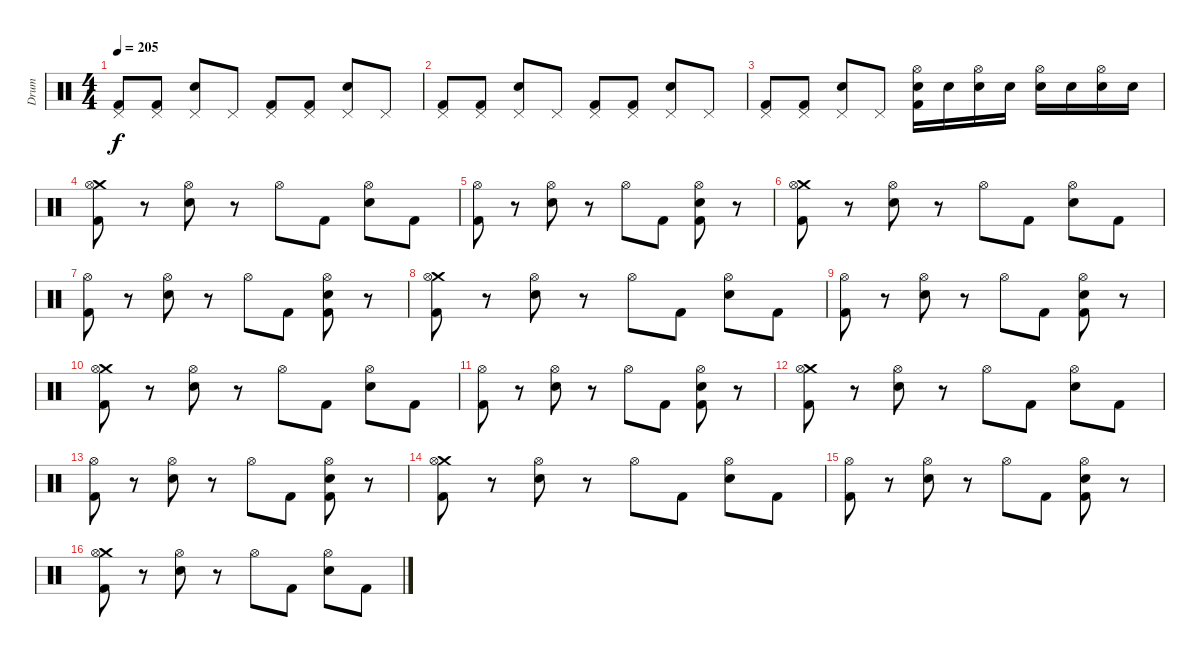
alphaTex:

\track ("Drum" "Drum") {instrument percussion}
\staff {score}
\articulation defaults
\ts (4 4)
\tempo 205
\clef neutral
\ks c
("Pedal Hi-Hat (hit)" "Kick (hit) 2").8{dy f} ("Pedal Hi-Hat (hit)" "Kick (hit) 2").8 ("Pedal Hi-Hat (hit)" "Snare (hit) 2").8 "Pedal Hi-Hat (hit)".8 ("Pedal Hi-Hat (hit)" "Kick (hit) 2").8 ("Pedal Hi-Hat (hit)" "Kick (hit) 2").8 ("Pedal Hi-Hat (hit)" "Snare (hit) 2").8 "Pedal Hi-Hat (hit)".8 |
("Pedal Hi-Hat (hit)" "Kick (hit) 2").8 ("Pedal Hi-Hat (hit)" "Kick (hit) 2").8 ("Pedal Hi-Hat (hit)" "Snare (hit) 2").8 "Pedal Hi-Hat (hit)".8 ("Pedal Hi-Hat (hit)" "Kick (hit) 2").8 ("Pedal Hi-Hat (hit)" "Kick (hit) 2").8 ("Pedal Hi-Hat (hit)" "Snare (hit) 2").8 "Pedal Hi-Hat (hit)".8 |
("Pedal Hi-Hat (hit)" "Kick (hit) 2").8 ("Pedal Hi-Hat (hit)" "Kick (hit) 2").8 ("Pedal Hi-Hat (hit)" "Snare (hit) 2").8 "Pedal Hi-Hat (hit)".8 ("Hi-Hat (open)" "Snare (hit) 2" "Kick (hit) 2").16 "Snare (hit) 2".16 ("Hi-Hat (open)" "Snare (hit) 2").16 "Snare (hit) 2".16 ("Hi-Hat (open)" "Snare (hit) 2").16 "Snare (hit) 2".16 ("Hi-Hat (open)" "Snare (hit) 2").16 "Snare (hit) 2".16 |
("Crash medium (hit)" "Hi-Hat (open)" "Kick (hit) 2").8 r.8 ("Hi-Hat (open)" "Snare (hit) 2").8 r.8 "Hi-Hat (open)".8 "Kick (hit) 2".8 ("Hi-Hat (open)" "Snare (hit) 2").8 "Kick (hit) 2".8 |
("Hi-Hat (open)" "Kick (hit) 2").8 r.8 ("Hi-Hat (open)" "Snare (hit) 2").8 r.8 "Hi-Hat (open)".8 "Kick (hit) 2".8 ("Hi-Hat (open)" "Snare (hit) 2" "Kick (hit) 2").8 r.8 |
("Crash medium (hit)" "Hi-Hat (open)" "Kick (hit) 2").8 r.8 ("Hi-Hat (open)" "Snare (hit) 2").8 r.8 "Hi-Hat (open)".8 "Kick (hit) 2".8 ("Hi-Hat (open)" "Snare (hit) 2").8 "Kick (hit) 2".8 |
("Hi-Hat (open)" "Kick (hit) 2").8 r.8 ("Hi-Hat (open)" "Snare (hit) 2").8 r.8 "Hi-Hat (open)".8 "Kick (hit) 2".8 ("Hi-Hat (open)" "Snare (hit) 2" "Kick (hit) 2").8 r.8 |
("Crash medium (hit)" "Hi-Hat (open)" "Kick (hit) 2").8 r.8 ("Hi-Hat (open)" "Snare (hit) 2").8 r.8 "Hi-Hat (open)".8 "Kick (hit) 2".8 ("Hi-Hat (open)" "Snare (hit) 2").8 "Kick (hit) 2".8 |
("Hi-Hat (open)" "Kick (hit) 2").8 r.8 ("Hi-Hat (open)" "Snare (hit) 2").8 r.8 "Hi-Hat (open)".8 "Kick (hit) 2".8 ("Hi-Hat (open)" "Snare (hit) 2" "Kick (hit) 2").8 r.8 |
("Crash medium (hit)" "Hi-Hat (open)" "Kick (hit) 2").8 r.8 ("Hi-Hat (open)" "Snare (hit) 2").8 r.8 "Hi-Hat (open)".8 "Kick (hit) 2".8 ("Hi-Hat (open)" "Snare (hit) 2").8 "Kick (hit) 2".8 |
("Hi-Hat (open)" "Kick (hit) 2").8 r.8 ("Hi-Hat (open)" "Snare (hit) 2").8 r.8 "Hi-Hat (open)".8 "Kick (hit) 2".8 ("Hi-Hat (open)" "Snare (hit) 2" "Kick (hit) 2").8 r.8 |
("Crash medium (hit)" "Hi-Hat (open)" "Kick (hit) 2").8 r.8 ("Hi-Hat (open)" "Snare (hit) 2").8 r.8 "Hi-Hat (open)".8 "Kick (hit) 2".8 ("Hi-Hat (open)" "Snare (hit) 2").8 "Kick (hit) 2".8 |
("Hi-Hat (open)" "Kick (hit) 2").8 r.8 ("Hi-Hat (open)" "Snare (hit) 2").8 r.8 "Hi-Hat (open)".8 "Kick (hit) 2".8 ("Hi-Hat (open)" "Snare (hit) 2" "Kick (hit) 2").8 r.8 |
("Crash medium (hit)" "Hi-Hat (open)" "Kick (hit) 2").8 r.8 ("Hi-Hat (open)" "Snare (hit) 2").8 r.8 "Hi-Hat (open)".8 "Kick (hit) 2".8 ("Hi-Hat (open)" "Snare (hit) 2").8 "Kick (hit) 2".8 |
("Hi-Hat (open)" "Kick (hit) 2").8 r.8 ("Hi-Hat (open)" "Snare (hit) 2").8 r.8 "Hi-Hat (open)".8 "Kick (hit) 2".8 ("Hi-Hat (open)" "Snare (hit) 2" "Kick (hit) 2").8 r.8 |
("Crash medium (hit)" "Hi-Hat (open)" "Kick (hit) 2").8 r.8 ("Hi-Hat (open)" "Snare (hit) 2").8 r.8 "Hi-Hat (open)".8 "Kick (hit) 2".8 ("Hi-Hat (open)" "Snare (hit) 2").8 "Kick (hit) 2".8
